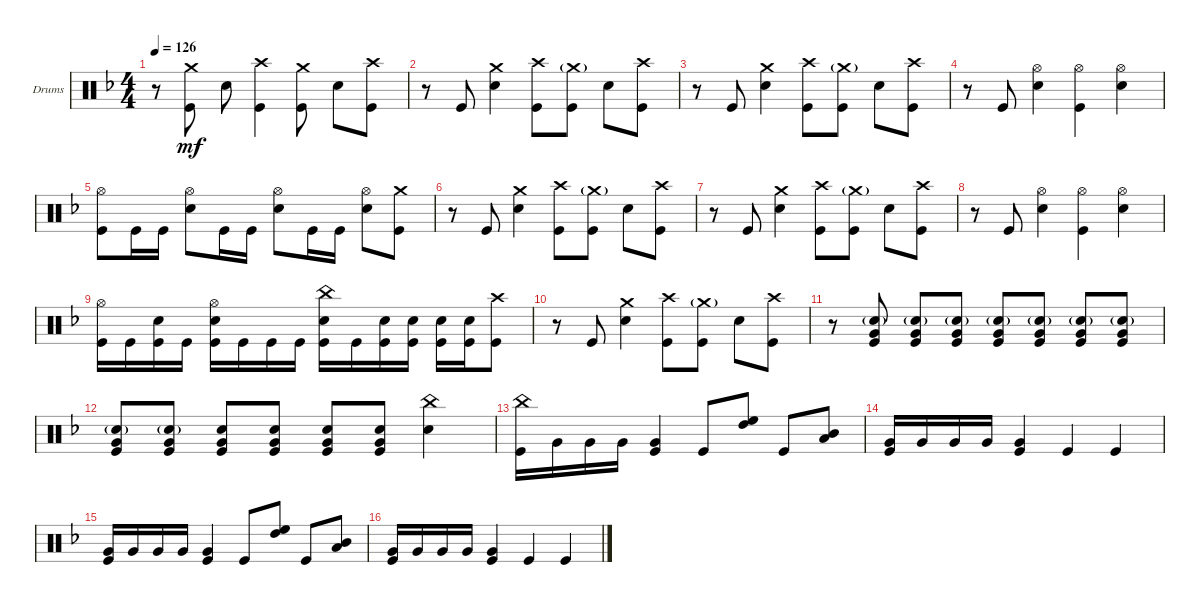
\defaultSystemsLayout 4
\bracketExtendMode groupsimilarinstruments
\firstSystemTrackNameOrientation horizontal
\otherSystemsTrackNameOrientation horizontal
\track ("Drumkit" "Drums") {instrument percussion}
\staff {score}
\articulation defaults
\ts (4 4)
\tempo 126
\clef neutral
\ks f
r.8{dy mf} ("Crash medium (hit)" "Kick (hit)").8 "Snare (hit) 2".8 ("Kick (hit)" "Crash high (hit)").4 ("Crash medium (hit)" "Kick (hit)").8 "Snare (hit) 2".8 ("Kick (hit)" "Crash high (hit)").8 |
r.8 "Kick (hit)".8 ("Snare (hit) 2" "Crash medium (hit)").4 ("Crash high (hit)" "Kick (hit)").8 ("Crash medium (hit)"{g} "Kick (hit)").8 "Snare (hit) 2".8 ("Crash high (hit)" "Kick (hit)").8 |
r.8 "Kick (hit)".8 ("Snare (hit) 2" "Crash medium (hit)").4 ("Crash high (hit)" "Kick (hit)").8 ("Crash medium (hit)"{g} "Kick (hit)").8 "Snare (hit) 2".8 ("Crash high (hit)" "Kick (hit)").8 |
r.8 "Kick (hit)".8 ("Snare (hit) 2" "Hi-Hat (open)").4 ("Hi-Hat (open)" "Kick (hit)").4 ("Snare (hit) 2" "Hi-Hat (open)").4 |
("Hi-Hat (open)" "Kick (hit)").8 "Kick (hit)".16 "Kick (hit)".16 ("Snare (hit) 2" "Hi-Hat (open)").8 "Kick (hit)".16 "Kick (hit)".16 ("Snare (hit) 2" "Hi-Hat (open)").8 "Kick (hit)".16 "Kick (hit)".16 ("Snare (hit) 2" "Hi-Hat (open)").8 ("Kick (hit)" "Crash medium (hit)").8 |
r.8 "Kick (hit)".8 ("Snare (hit) 2" "Crash medium (hit)").4 ("Crash high (hit)" "Kick (hit)").8 ("Crash medium (hit)"{g} "Kick (hit)").8 "Snare (hit) 2".8 ("Crash high (hit)" "Kick (hit)").8 |
r.8 "Kick (hit)".8 ("Snare (hit) 2" "Crash medium (hit)").4 ("Crash high (hit)" "Kick (hit)").8 ("Crash medium (hit)"{g} "Kick (hit)").8 "Snare (hit) 2".8 ("Crash high (hit)" "Kick (hit)").8 |
r.8 "Kick (hit)".8 ("Snare (hit) 2" "Hi-Hat (open)").4 ("Hi-Hat (open)" "Kick (hit)").4 ("Snare (hit) 2" "Hi-Hat (open)").4 |
("Kick (hit)" "Hi-Hat (open)").16 "Kick (hit)".16 ("Kick (hit)" "Snare (hit) 2").16 "Kick (hit)".16 ("Kick (hit)" "Snare (hit) 2" "Hi-Hat (open)").16 "Kick (hit)".16 "Kick (hit)".16 "Kick (hit)".16 ("Kick (hit)" "Snare (hit) 2" "China (hit)").16 "Kick (hit)".16 ("Kick (hit)" "Snare (hit) 2").16 ("Kick (hit)" "Snare (hit) 2").16 ("Kick (hit)" "Snare (hit) 2").16 ("Kick (hit)" "Snare (hit) 2").16 ("Kick (hit)" "Crash high (hit)").8 |
r.8 "Kick (hit)".8 ("Snare (hit) 2" "Crash medium (hit)").4 ("Crash high (hit)" "Kick (hit)").8 ("Crash medium (hit)"{g} "Kick (hit)").8 "Snare (hit) 2".8 ("Crash high (hit)" "Kick (hit)").8 |
r.8 ("Very Low Tom (hit)" "Snare (hit) 2"{g} "Kick (hit)").8 ("Very Low Tom (hit)" "Snare (hit) 2"{g} "Kick (hit)").8 ("Very Low Tom (hit)" "Snare (hit) 2"{g} "Kick (hit)").8 ("Very Low Tom (hit)" "Snare (hit) 2"{g} "Kick (hit)").8 ("Very Low Tom (hit)" "Snare (hit) 2"{g} "Kick (hit)").8 ("Very Low Tom (hit)" "Snare (hit) 2"{g} "Kick (hit)").8 ("Very Low Tom (hit)" "Snare (hit) 2"{g} "Kick (hit)").8 |
("Very Low Tom (hit)" "Snare (hit) 2"{g} "Kick (hit)").8 ("Very Low Tom (hit)" "Snare (hit) 2"{g} "Kick (hit)").8 ("Very Low Tom (hit)" "Snare (hit) 2" "Kick (hit)").8 ("Very Low Tom (hit)" "Snare (hit) 2" "Kick (hit)").8 ("Very Low Tom (hit)" "Snare (hit) 2" "Kick (hit)").8 ("Very Low Tom (hit)" "Snare (hit) 2" "Kick (hit)").8 ("Snare (hit) 2" "China (hit)").4 |
("China (hit)" "Kick (hit)").16 "Very Low Tom (hit)".16 "Very Low Tom (hit)".16 "Very Low Tom (hit)".16 ("Kick (hit)" "Very Low Tom (hit)").4 "Kick (hit)".8 ("High Floor Tom (hit)" "High Tom (hit)").8 "Kick (hit)".8 ("Mid Tom (hit)" "Low Tom (hit)").8 |
("Kick (hit)" "Very Low Tom (hit)").16 "Very Low Tom (hit)".16 "Very Low Tom (hit)".16 "Very Low Tom (hit)".16 ("Very Low Tom (hit)" "Kick (hit)").4 "Kick (hit)".4 "Kick (hit)".4 |
("Kick (hit)" "Very Low Tom (hit)").16 "Very Low Tom (hit)".16 "Very Low Tom (hit)".16 "Very Low Tom (hit)".16 ("Kick (hit)" "Very Low Tom (hit)").4 "Kick (hit)".8 ("High Floor Tom (hit)" "High Tom (hit)").8 "Kick (hit)".8 ("Mid Tom (hit)" "Low Tom (hit)").8 |
("Kick (hit)" "Very Low Tom (hit)").16 "Very Low Tom (hit)".16 "Very Low Tom (hit)".16 "Very Low Tom (hit)".16 ("Very Low Tom (hit)" "Kick (hit)").4 "Kick (hit)".4 "Kick (hit)".4
